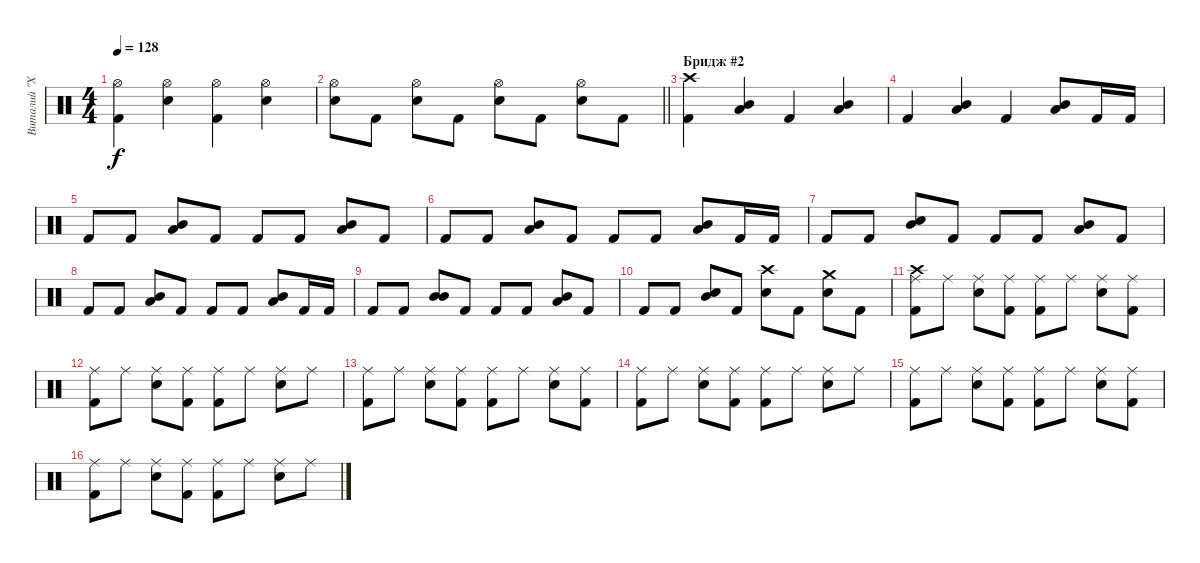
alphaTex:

\track ("Виталий \"Хамер\" Лядов" "Виталий \"Х") {instrument percussion}
\staff {score}
\articulation defaults
\ts (4 4)
\tempo 128
\clef neutral
\ks c
("Kick (hit) 2" "Hi-Hat (open)").4{dy f} ("Electric Snare (hit)" "Hi-Hat (open)").4 ("Kick (hit) 2" "Hi-Hat (open)").4 ("Electric Snare (hit)" "Hi-Hat (open)").4 |
\barLineRight lightlight
("Electric Snare (hit)" "Hi-Hat (open)").8 "Kick (hit) 2".8 ("Electric Snare (hit)" "Hi-Hat (open)").8 "Kick (hit) 2".8 ("Electric Snare (hit)" "Hi-Hat (open)").8 "Kick (hit) 2".8 ("Electric Snare (hit)" "Hi-Hat (open)").8 "Kick (hit) 2".8 |
\section ("" "Бридж #2")
("Kick (hit) 2" "Crash high (hit)").4 ("Low Tom (hit)" "Mid Tom (hit)").4 "Kick (hit) 2".4 ("Low Tom (hit)" "Mid Tom (hit)").4 |
"Kick (hit) 2".4 ("Low Tom (hit)" "Mid Tom (hit)").4 "Kick (hit) 2".4 ("Low Tom (hit)" "Mid Tom (hit)").8 "Kick (hit) 2".16 "Kick (hit) 2".16 |
"Kick (hit) 2".8 "Kick (hit) 2".8 ("Low Tom (hit)" "Mid Tom (hit)").8 "Kick (hit) 2".8 "Kick (hit) 2".8 "Kick (hit) 2".8 ("Low Tom (hit)" "Mid Tom (hit)").8 "Kick (hit) 2".8 |
"Kick (hit) 2".8 "Kick (hit) 2".8 ("Low Tom (hit)" "Mid Tom (hit)").8 "Kick (hit) 2".8 "Kick (hit) 2".8 "Kick (hit) 2".8 ("Low Tom (hit)" "Mid Tom (hit)").8 "Kick (hit) 2".16 "Kick (hit) 2".16 |
"Kick (hit) 2".8 "Kick (hit) 2".8 ("Electric Snare (hit)" "Mid Tom (hit)").8 "Kick (hit) 2".8 "Kick (hit) 2".8 "Kick (hit) 2".8 ("Low Tom (hit)" "Mid Tom (hit)").8 "Kick (hit) 2".8 |
"Kick (hit) 2".8 "Kick (hit) 2".8 ("Low Tom (hit)" "Mid Tom (hit)").8 "Kick (hit) 2".8 "Kick (hit) 2".8 "Kick (hit) 2".8 ("Low Tom (hit)" "Mid Tom (hit)").8 "Kick (hit) 2".16 "Kick (hit) 2".16 |
"Kick (hit) 2".8 "Kick (hit) 2".8 ("Mid Tom (hit)" "Mid Tom (hit)").8 "Kick (hit) 2".8 "Kick (hit) 2".8 "Kick (hit) 2".8 ("Low Tom (hit)" "Mid Tom (hit)").8 "Kick (hit) 2".8 |
"Kick (hit) 2".8 "Kick (hit) 2".8 ("Electric Snare (hit)" "Mid Tom (hit)").8 "Kick (hit) 2".8 ("Electric Snare (hit)" "Crash high (hit)").8 "Kick (hit) 2".8 ("Electric Snare (hit)" "Crash medium (hit)").8 "Kick (hit) 2".8 |
("Kick (hit) 2" "Ride (middle)" "Crash high (hit)").8 "Ride (middle)".8 ("Electric Snare (hit)" "Ride (middle)").8 ("Kick (hit) 2" "Ride (middle)").8 ("Kick (hit) 2" "Ride (middle)").8 "Ride (middle)".8 ("Electric Snare (hit)" "Ride (middle)").8 ("Kick (hit) 2" "Ride (middle)").8 |
("Kick (hit) 2" "Ride (middle)").8 "Ride (middle)".8 ("Electric Snare (hit)" "Ride (middle)").8 ("Kick (hit) 2" "Ride (middle)").8 ("Kick (hit) 2" "Ride (middle)").8 "Ride (middle)".8 ("Electric Snare (hit)" "Ride (middle)").8 "Ride (middle)".8 |
("Kick (hit) 2" "Ride (middle)").8 "Ride (middle)".8 ("Electric Snare (hit)" "Ride (middle)").8 ("Kick (hit) 2" "Ride (middle)").8 ("Kick (hit) 2" "Ride (middle)").8 "Ride (middle)".8 ("Electric Snare (hit)" "Ride (middle)").8 ("Kick (hit) 2" "Ride (middle)").8 |
("Kick (hit) 2" "Ride (middle)").8 "Ride (middle)".8 ("Electric Snare (hit)" "Ride (middle)").8 ("Kick (hit) 2" "Ride (middle)").8 ("Kick (hit) 2" "Ride (middle)").8 "Ride (middle)".8 ("Electric Snare (hit)" "Ride (middle)").8 "Ride (middle)".8 |
("Kick (hit) 2" "Ride (middle)").8 "Ride (middle)".8 ("Electric Snare (hit)" "Ride (middle)").8 ("Kick (hit) 2" "Ride (middle)").8 ("Kick (hit) 2" "Ride (middle)").8 "Ride (middle)".8 ("Electric Snare (hit)" "Ride (middle)").8 ("Kick (hit) 2" "Ride (middle)").8 |
("Kick (hit) 2" "Ride (middle)").8 "Ride (middle)".8 ("Electric Snare (hit)" "Ride (middle)").8 ("Kick (hit) 2" "Ride (middle)").8 ("Kick (hit) 2" "Ride (middle)").8 "Ride (middle)".8 ("Electric Snare (hit)" "Ride (middle)").8 "Ride (middle)".8
